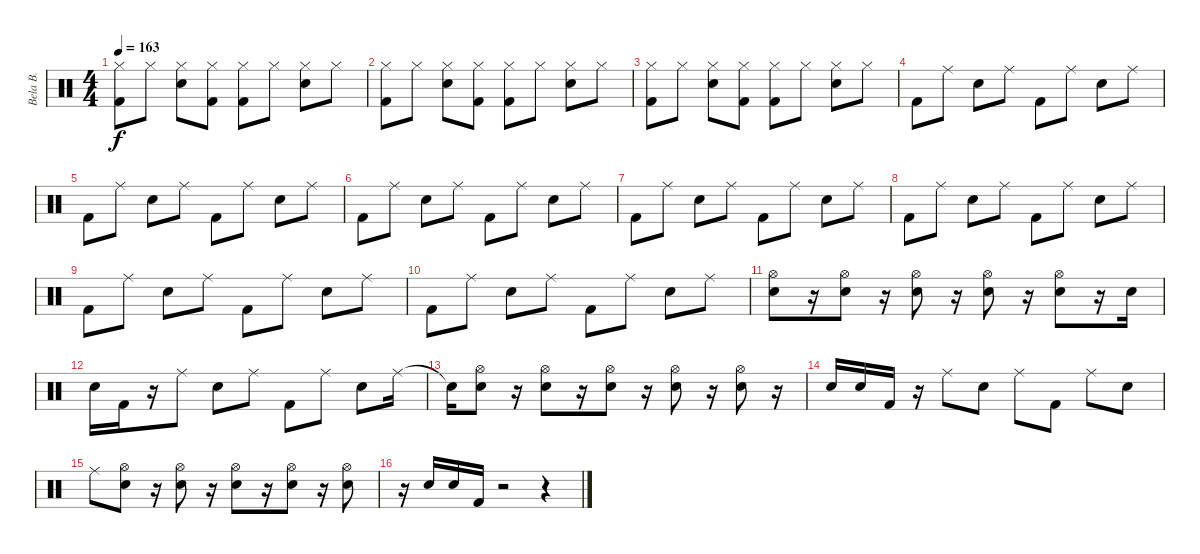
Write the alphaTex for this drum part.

\track ("Bela B." "Bela B.") {instrument percussion}
\staff {score}
\articulation defaults
\ts (4 4)
\tempo 163
\clef neutral
\ks c
("Kick (hit) 2" "Hi-Hat (closed)").8{dy f} "Hi-Hat (closed)".8 ("Snare (hit) 2" "Hi-Hat (closed)").8 ("Hi-Hat (closed)" "Kick (hit) 2").8 ("Kick (hit) 2" "Hi-Hat (closed)").8 "Hi-Hat (closed)".8 ("Hi-Hat (closed)" "Snare (hit) 2").8 "Hi-Hat (closed)".8 |
("Kick (hit) 2" "Hi-Hat (closed)").8 "Hi-Hat (closed)".8 ("Snare (hit) 2" "Hi-Hat (closed)").8 ("Kick (hit) 2" "Hi-Hat (closed)").8 ("Kick (hit) 2" "Hi-Hat (closed)").8 "Hi-Hat (closed)".8 ("Hi-Hat (closed)" "Snare (hit) 2").8 "Hi-Hat (closed)".8 |
("Hi-Hat (closed)" "Kick (hit) 2").8 "Hi-Hat (closed)".8 ("Snare (hit) 2" "Hi-Hat (closed)").8 ("Hi-Hat (closed)" "Kick (hit) 2").8 ("Kick (hit) 2" "Hi-Hat (closed)").8 "Hi-Hat (closed)".8 ("Snare (hit) 2" "Hi-Hat (closed)").8 "Hi-Hat (closed)".8 |
"Kick (hit) 2".8 "Ride (middle)".8 "Snare (hit) 2".8 "Ride (middle)".8 "Kick (hit) 2".8 "Ride (middle)".8 "Snare (hit) 2".8 "Ride (middle)".8 |
"Kick (hit) 2".8 "Ride (middle)".8 "Snare (hit) 2".8 "Ride (middle)".8 "Kick (hit) 2".8 "Ride (middle)".8 "Snare (hit) 2".8 "Ride (middle)".8 |
"Kick (hit) 2".8 "Ride (middle)".8 "Snare (hit) 2".8 "Ride (middle)".8 "Kick (hit) 2".8 "Ride (middle)".8 "Snare (hit) 2".8 "Ride (middle)".8 |
"Kick (hit) 2".8 "Ride (middle)".8 "Snare (hit) 2".8 "Ride (middle)".8 "Kick (hit) 2".8 "Ride (middle)".8 "Snare (hit) 2".8 "Ride (middle)".8 |
"Kick (hit) 2".8 "Ride (middle)".8 "Snare (hit) 2".8 "Ride (middle)".8 "Kick (hit) 2".8 "Ride (middle)".8 "Snare (hit) 2".8 "Ride (middle)".8 |
"Kick (hit) 2".8 "Ride (middle)".8 "Snare (hit) 2".8 "Ride (middle)".8 "Kick (hit) 2".8 "Ride (middle)".8 "Snare (hit) 2".8 "Ride (middle)".8 |
"Kick (hit) 2".8 "Ride (middle)".8 "Snare (hit) 2".8 "Ride (middle)".8 "Kick (hit) 2".8 "Ride (middle)".8 "Snare (hit) 2".8 "Ride (middle)".8 |
("Hi-Hat (open)" "Snare (hit) 2").8 r.16 ("Hi-Hat (open)" "Snare (hit) 2").8 r.16 ("Hi-Hat (open)" "Snare (hit) 2").8 r.16 ("Hi-Hat (open)" "Snare (hit) 2").8 r.16 ("Hi-Hat (open)" "Snare (hit) 2").8 r.16 "Snare (hit) 2".16 |
"Snare (hit) 2".16 "Kick (hit) 2".16 r.16 "Ride (middle)".8 "Snare (hit) 2".8 "Ride (middle)".8 "Kick (hit) 2".8 "Ride (middle)".8 "Snare (hit) 2".8 "Ride (middle)".16 |
"Snare (hit)"{t}.16 ("Hi-Hat (open)" "Snare (hit) 2").8 r.16 ("Hi-Hat (open)" "Snare (hit) 2").8 r.16 ("Hi-Hat (open)" "Snare (hit) 2").8 r.16 ("Hi-Hat (open)" "Snare (hit) 2").8 r.16 ("Hi-Hat (open)" "Snare (hit) 2").8 r.16 |
"Snare (hit) 2".16 "Snare (hit) 2".16 "Kick (hit) 2".16 r.16 "Ride (middle)".8 "Snare (hit) 2".8 "Ride (middle)".8 "Kick (hit) 2".8 "Ride (middle)".8 "Snare (hit) 2".8 |
"Ride (middle)".8 ("Hi-Hat (open)" "Snare (hit) 2").8 r.16 ("Hi-Hat (open)" "Snare (hit) 2").8 r.16 ("Hi-Hat (open)" "Snare (hit) 2").8 r.16 ("Hi-Hat (open)" "Snare (hit) 2").8 r.16 ("Hi-Hat (open)" "Snare (hit) 2").8 |
r.16 "Snare (hit) 2".16 "Snare (hit) 2".16 "Kick (hit) 2".16 r.2 r.4
